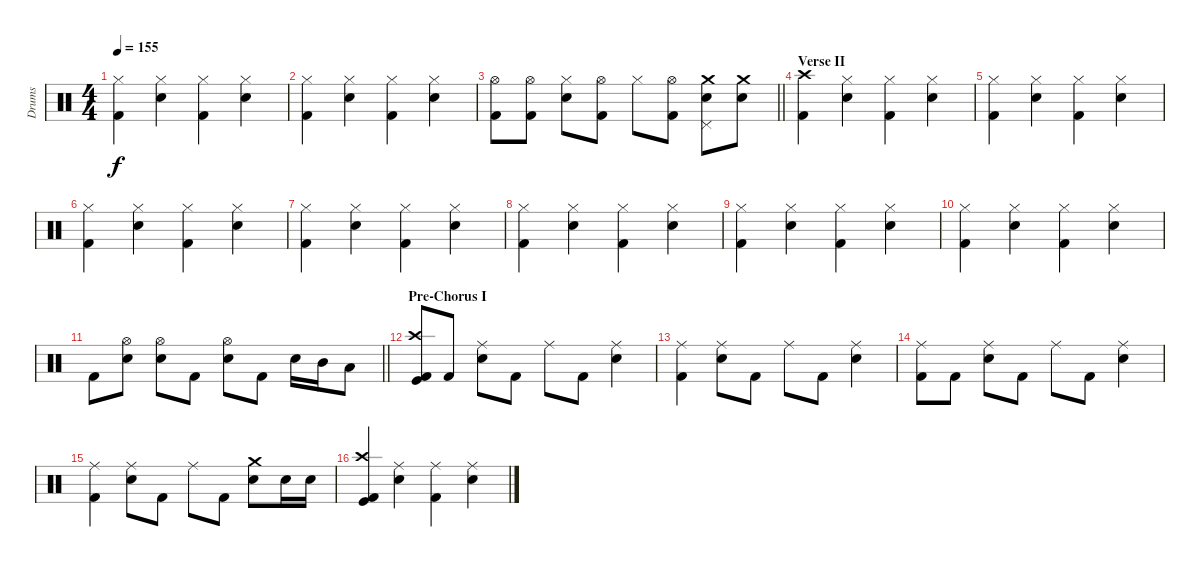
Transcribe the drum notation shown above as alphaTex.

\track ("Drums" "Drums") {instrument percussion}
\staff {score}
\articulation defaults
\ts (4 4)
\tempo 155
\clef neutral
\ks c
("Hi-Hat (closed)" "Kick (hit) 2").4{dy f} ("Hi-Hat (closed)" "Electric Snare (hit)").4 ("Hi-Hat (closed)" "Kick (hit) 2").4 ("Hi-Hat (closed)" "Electric Snare (hit)").4 |
("Hi-Hat (closed)" "Kick (hit) 2").4 ("Hi-Hat (closed)" "Electric Snare (hit)").4 ("Hi-Hat (closed)" "Kick (hit) 2").4 ("Hi-Hat (closed)" "Electric Snare (hit)").4 |
\barLineRight lightlight
("Hi-Hat (open)" "Kick (hit) 2").8 ("Hi-Hat (open)" "Kick (hit) 2").8 ("Hi-Hat (closed)" "Electric Snare (hit)").8 ("Hi-Hat (open)" "Kick (hit) 2").8 "Hi-Hat (closed)".8 ("Hi-Hat (open)" "Kick (hit) 2").8 ("Pedal Hi-Hat (hit)" "Crash medium (hit)" "Electric Snare (hit)").8 ("Crash medium (hit)" "Electric Snare (hit)").8 |
\section ("" "Verse II")
("Crash high (hit)" "Kick (hit) 2").4 ("Hi-Hat (closed)" "Electric Snare (hit)").4 ("Hi-Hat (closed)" "Kick (hit) 2").4 ("Hi-Hat (closed)" "Electric Snare (hit)").4 |
("Hi-Hat (closed)" "Kick (hit) 2").4 ("Hi-Hat (closed)" "Electric Snare (hit)").4 ("Hi-Hat (closed)" "Kick (hit) 2").4 ("Hi-Hat (closed)" "Electric Snare (hit)").4 |
("Hi-Hat (closed)" "Kick (hit) 2").4 ("Hi-Hat (closed)" "Electric Snare (hit)").4 ("Hi-Hat (closed)" "Kick (hit) 2").4 ("Hi-Hat (closed)" "Electric Snare (hit)").4 |
("Hi-Hat (closed)" "Kick (hit) 2").4 ("Hi-Hat (closed)" "Electric Snare (hit)").4 ("Hi-Hat (closed)" "Kick (hit) 2").4 ("Hi-Hat (closed)" "Electric Snare (hit)").4 |
("Hi-Hat (closed)" "Kick (hit) 2").4 ("Hi-Hat (closed)" "Electric Snare (hit)").4 ("Hi-Hat (closed)" "Kick (hit) 2").4 ("Hi-Hat (closed)" "Electric Snare (hit)").4 |
("Hi-Hat (closed)" "Kick (hit) 2").4 ("Hi-Hat (closed)" "Electric Snare (hit)").4 ("Hi-Hat (closed)" "Kick (hit) 2").4 ("Hi-Hat (closed)" "Electric Snare (hit)").4 |
("Hi-Hat (closed)" "Kick (hit) 2").4 ("Hi-Hat (closed)" "Electric Snare (hit)").4 ("Hi-Hat (closed)" "Kick (hit) 2").4 ("Hi-Hat (closed)" "Electric Snare (hit)").4 |
\barLineRight lightlight "Kick (hit) 2".8
("Hi-Hat (open)" "Electric Snare (hit)").8 ("Hi-Hat (open)" "Electric Snare (hit)").8 "Kick (hit) 2".8 ("Hi-Hat (open)" "Electric Snare (hit)").8 "Kick (hit) 2".8 "Electric Snare (hit)".16 "Mid Tom (hit)".16 "Low Tom (hit)".8 |
\section ("" "Pre-Chorus I")
("Crash high (hit)" "Kick (hit) 2" "Kick (hit)").8 "Kick (hit) 2".8 ("Ride (middle)" "Electric Snare (hit)").8 "Kick (hit) 2".8 "Ride (middle)".8 "Kick (hit) 2".8 ("Ride (middle)" "Electric Snare (hit)").4 |
("Ride (middle)" "Kick (hit) 2").4 ("Ride (middle)" "Electric Snare (hit)").8 "Kick (hit) 2".8 "Ride (middle)".8 "Kick (hit) 2".8 ("Ride (middle)" "Electric Snare (hit)").4 |
("Ride (middle)" "Kick (hit) 2").8 "Kick (hit) 2".8 ("Ride (middle)" "Electric Snare (hit)").8 "Kick (hit) 2".8 "Ride (middle)".8 "Kick (hit) 2".8 ("Ride (middle)" "Electric Snare (hit)").4 |
("Ride (middle)" "Kick (hit) 2").4 ("Ride (middle)" "Electric Snare (hit)").8 "Kick (hit) 2".8 "Ride (middle)".8 "Kick (hit) 2".8 ("Crash medium (hit)" "Electric Snare (hit)").8 "Electric Snare (hit)".16 "Electric Snare (hit)".16 |
("Crash high (hit)" "Kick (hit) 2" "Kick (hit)").4 ("Ride (middle)" "Electric Snare (hit)").4 ("Ride (middle)" "Kick (hit) 2").4 ("Ride (middle)" "Electric Snare (hit)").4
